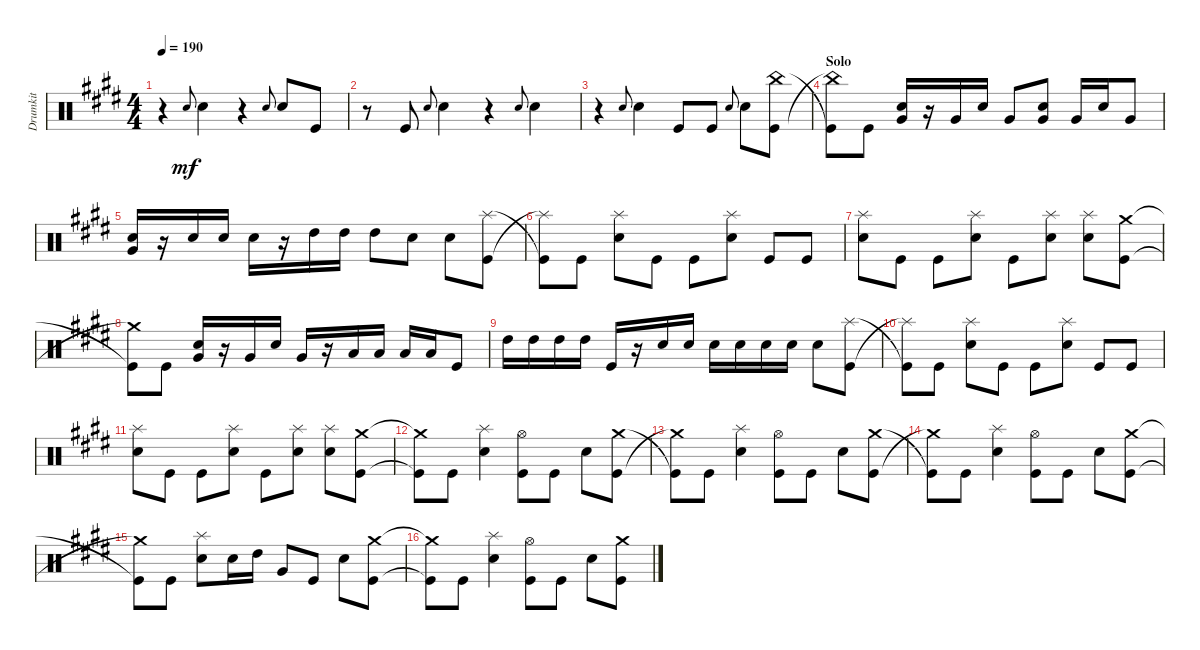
\track ("Drumkit" "Drumkit") {instrument percussion}
\staff {score}
\articulation defaults
\ts (4 4)
\tempo 190
\clef neutral
\ks e
r.4{dy mf} "Snare (hit)".8{gr onbeat} "Snare (hit) 2".4 r.4 "Snare (hit)".8{gr onbeat} "Snare (hit) 2".8 "Kick (hit)".8 |
r.8 "Kick (hit)".8 "Snare (hit)".8{gr onbeat} "Snare (hit) 2".4 r.4 "Snare (hit)".8{gr onbeat} "Snare (hit) 2".4 |
r.4 "Snare (hit)".8{gr onbeat} "Snare (hit) 2".4 "Kick (hit)".8 "Kick (hit)".8 "Snare (hit)".8{gr onbeat} "Snare (hit) 2".8 ("China (hit)" "Kick (hit)").8 |
\section ("" "Solo")
("Kick (hit)"{t} "China (hit)"{t}).8 "Kick (hit)".8 ("Snare (hit) 2" "Very Low Tom (hit)").16 r.16 "Very Low Tom (hit)".16 "Snare (hit) 2".16 "Very Low Tom (hit)".8 ("Very Low Tom (hit)" "Snare (hit) 2").8 "Very Low Tom (hit)".16 "Snare (hit) 2".16 "Very Low Tom (hit)".8 |
("Very Low Tom (hit)" "Snare (hit) 2").16 r.16 "Snare (hit) 2".16 "Snare (hit) 2".16 "Snare (hit) 2".16 r.16 "High Tom (hit)".16 "High Tom (hit)".16 "High Tom (hit)".8 "Snare (hit) 2".8 "Snare (hit) 2".8 ("Splash (hit)" "Kick (hit)").8 |
("Kick (hit)"{t} "Splash (hit)"{t}).8 "Kick (hit)".8 ("Splash (hit)" "Snare (hit) 2").8 "Kick (hit)".8 "Kick (hit)".8 ("Snare (hit) 2" "Splash (hit)").8 "Kick (hit)".8 "Kick (hit)".8 |
("Splash (hit)" "Snare (hit) 2").8 "Kick (hit)".8 "Kick (hit)".8 ("Snare (hit) 2" "Splash (hit)").8 "Kick (hit)".8 ("Snare (hit) 2" "Splash (hit)").8 ("Splash (hit)" "Snare (hit) 2").8 ("Crash medium (hit)" "Kick (hit)").8 |
("Kick (hit)"{t} "Crash medium (hit)"{t}).8 "Kick (hit)".8 ("Snare (hit) 2" "Very Low Tom (hit)").16 r.16 "Very Low Tom (hit)".16 "Snare (hit) 2".16 "Very Low Tom (hit)".16 r.16 "Low Tom (hit)".16 "Low Tom (hit)".16 "Low Tom (hit)".16 "Low Tom (hit)".16 "Kick (hit)".8 |
"High Tom (hit)".16 "High Tom (hit)".16 "High Tom (hit)".16 "High Tom (hit)".16 "Kick (hit)".16 r.16 "Snare (hit) 2".16 "Snare (hit) 2".16 "Snare (hit) 2".16 "Snare (hit) 2".16 "Snare (hit) 2".16 "Snare (hit) 2".16 "Snare (hit) 2".8 ("Splash (hit)" "Kick (hit)").8 |
("Kick (hit)"{t} "Splash (hit)"{t}).8 "Kick (hit)".8 ("Splash (hit)" "Snare (hit) 2").8 "Kick (hit)".8 "Kick (hit)".8 ("Snare (hit) 2" "Splash (hit)").8 "Kick (hit)".8 "Kick (hit)".8 |
("Splash (hit)" "Snare (hit) 2").8 "Kick (hit)".8 "Kick (hit)".8 ("Snare (hit) 2" "Splash (hit)").8 "Kick (hit)".8 ("Snare (hit) 2" "Splash (hit)").8 ("Splash (hit)" "Snare (hit) 2").8 ("Crash medium (hit)" "Kick (hit)").8 |
("Crash medium (hit)"{t} "Kick (hit)"{t}).8 "Kick (hit)".8 ("Snare (hit) 2" "Splash (hit)").4 ("Hi-Hat (open)" "Kick (hit)").8 "Kick (hit)".8 "Snare (hit) 2".8 ("Kick (hit)" "Crash medium (hit)").8 |
("Crash medium (hit)"{t} "Kick (hit)"{t}).8 "Kick (hit)".8 ("Snare (hit) 2" "Splash (hit)").4 ("Hi-Hat (open)" "Kick (hit)").8 "Kick (hit)".8 "Snare (hit) 2".8 ("Kick (hit)" "Crash medium (hit)").8 |
("Crash medium (hit)"{t} "Kick (hit)"{t}).8 "Kick (hit)".8 ("Snare (hit) 2" "Splash (hit)").4 ("Hi-Hat (open)" "Kick (hit)").8 "Kick (hit)".8 "Snare (hit) 2".8 ("Kick (hit)" "Crash medium (hit)").8 |
("Crash medium (hit)"{t} "Kick (hit)"{t}).8 "Kick (hit)".8 ("Snare (hit) 2" "Splash (hit)").8 "Snare (hit) 2".16 "High Tom (hit)".16 "Very Low Tom (hit)".8 "Kick (hit)".8 "Snare (hit) 2".8 ("Crash medium (hit)" "Kick (hit)").8 |
("Crash medium (hit)"{t} "Kick (hit)"{t}).8 "Kick (hit)".8 ("Snare (hit) 2" "Splash (hit)").4 ("Hi-Hat (open)" "Kick (hit)").8 "Kick (hit)".8 "Snare (hit) 2".8 ("Kick (hit)" "Crash medium (hit)").8
